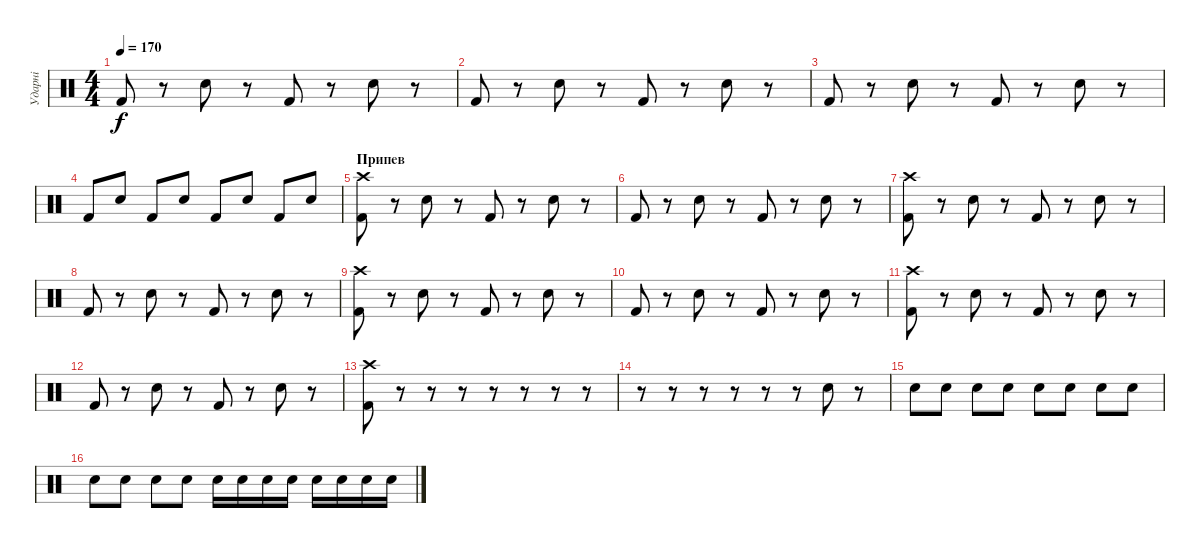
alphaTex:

\track ("Ударні" "Ударні") {instrument percussion}
\staff {score}
\articulation defaults
\ts (4 4)
\tempo 170
\clef neutral
\ks c "Kick (hit) 2".8{dy f}
r.8 "Electric Snare (hit)".8 r.8 "Kick (hit) 2".8 r.8 "Electric Snare (hit)".8 r.8 |
"Kick (hit) 2".8 r.8 "Electric Snare (hit)".8 r.8 "Kick (hit) 2".8 r.8 "Electric Snare (hit)".8 r.8 |
"Kick (hit) 2".8 r.8 "Electric Snare (hit)".8 r.8 "Kick (hit) 2".8 r.8 "Electric Snare (hit)".8 r.8 |
"Kick (hit) 2".8 "Electric Snare (hit)".8 "Kick (hit) 2".8 "Electric Snare (hit)".8 "Kick (hit) 2".8 "Electric Snare (hit)".8 "Kick (hit) 2".8 "Electric Snare (hit)".8 |
\section ("" "Припев")
("Kick (hit) 2" "Crash high (hit)").8 r.8 "Electric Snare (hit)".8 r.8 "Kick (hit) 2".8 r.8 "Electric Snare (hit)".8 r.8 |
"Kick (hit) 2".8 r.8 "Electric Snare (hit)".8 r.8 "Kick (hit) 2".8 r.8 "Electric Snare (hit)".8 r.8 |
("Kick (hit) 2" "Crash high (hit)").8 r.8 "Electric Snare (hit)".8 r.8 "Kick (hit) 2".8 r.8 "Electric Snare (hit)".8 r.8 |
"Kick (hit) 2".8 r.8 "Electric Snare (hit)".8 r.8 "Kick (hit) 2".8 r.8 "Electric Snare (hit)".8 r.8 |
("Kick (hit) 2" "Crash high (hit)").8 r.8 "Electric Snare (hit)".8 r.8 "Kick (hit) 2".8 r.8 "Electric Snare (hit)".8 r.8 |
"Kick (hit) 2".8 r.8 "Electric Snare (hit)".8 r.8 "Kick (hit) 2".8 r.8 "Electric Snare (hit)".8 r.8 |
("Kick (hit) 2" "Crash high (hit)").8 r.8 "Electric Snare (hit)".8 r.8 "Kick (hit) 2".8 r.8 "Electric Snare (hit)".8 r.8 |
"Kick (hit) 2".8 r.8 "Electric Snare (hit)".8 r.8 "Kick (hit) 2".8 r.8 "Electric Snare (hit)".8 r.8 |
("Kick (hit) 2" "Crash high (hit)").8 r.8 r.8 r.8 r.8 r.8 r.8 r.8 |
r.8 r.8 r.8 r.8 r.8 r.8 "Electric Snare (hit)".8 r.8 |
"Electric Snare (hit)".8 "Electric Snare (hit)".8 "Electric Snare (hit)".8 "Electric Snare (hit)".8 "Electric Snare (hit)".8 "Electric Snare (hit)".8 "Electric Snare (hit)".8 "Electric Snare (hit)".8 |
"Electric Snare (hit)".8 "Electric Snare (hit)".8 "Electric Snare (hit)".8 "Electric Snare (hit)".8 "Electric Snare (hit)".16 "Electric Snare (hit)".16 "Electric Snare (hit)".16 "Electric Snare (hit)".16 "Electric Snare (hit)".16 "Electric Snare (hit)".16 "Electric Snare (hit)".16 "Electric Snare (hit)".16
